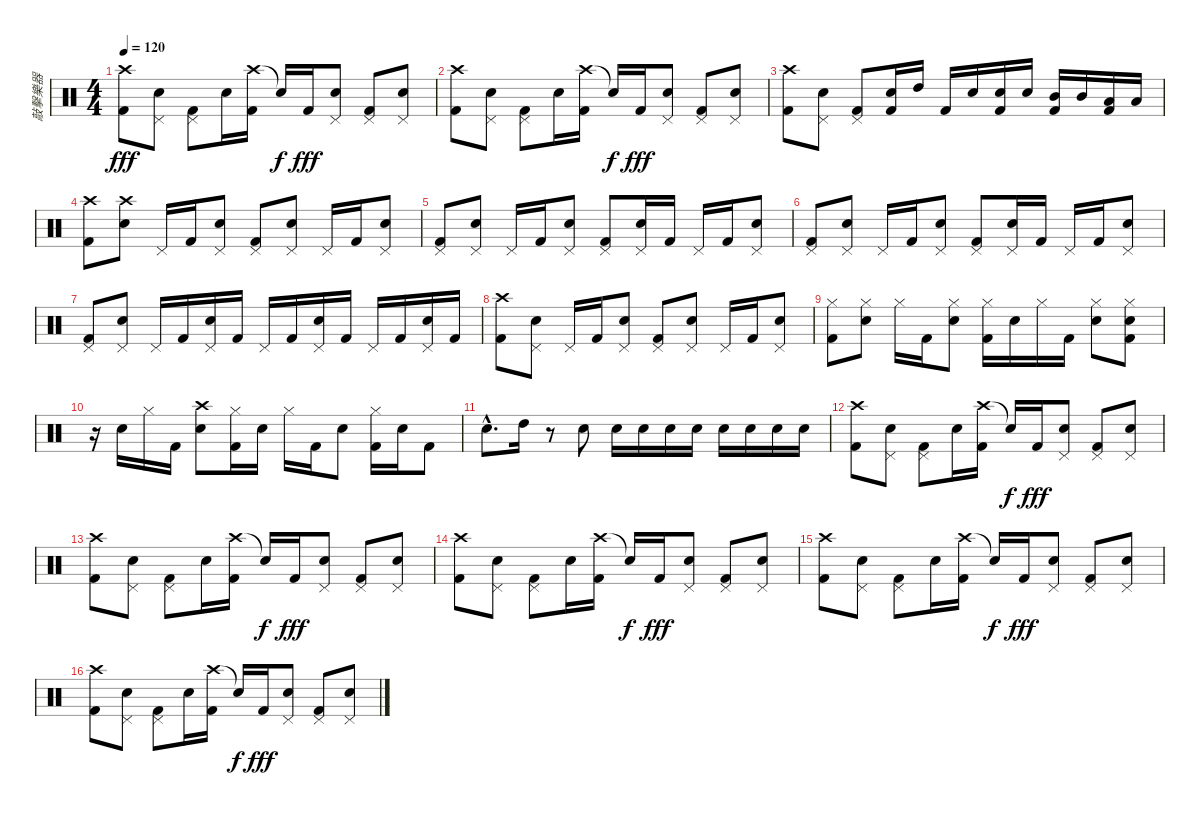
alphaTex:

\track ("敲擊樂器" "敲擊樂器") {instrument percussion}
\staff {score}
\articulation defaults
\ts (4 4)
\tempo 120
\clef neutral
\ks c
("Crash high (hit)" "Kick (hit) 2").8{dy fff} ("Pedal Hi-Hat (hit)" "Snare (hit) 2").8 ("Pedal Hi-Hat (hit)" "Kick (hit) 2").8 "Snare (hit) 2".16 ("Crash high (hit)" "Kick (hit) 2").16 "Snare (hit)"{t}.16{dy f} "Kick (hit) 2".16{dy fff} ("Pedal Hi-Hat (hit)" "Snare (hit) 2").8 ("Pedal Hi-Hat (hit)" "Kick (hit) 2").8 ("Pedal Hi-Hat (hit)" "Snare (hit) 2").8 |
("Crash high (hit)" "Kick (hit) 2").8 ("Pedal Hi-Hat (hit)" "Snare (hit) 2").8 ("Pedal Hi-Hat (hit)" "Kick (hit) 2").8 "Snare (hit) 2".16 ("Crash high (hit)" "Kick (hit) 2").16 "Snare (hit)"{t}.16{dy f} "Kick (hit) 2".16{dy fff} ("Pedal Hi-Hat (hit)" "Snare (hit) 2").8 ("Pedal Hi-Hat (hit)" "Kick (hit) 2").8 ("Pedal Hi-Hat (hit)" "Snare (hit) 2").8 |
("Crash high (hit)" "Kick (hit) 2").8 ("Pedal Hi-Hat (hit)" "Snare (hit) 2").8 ("Pedal Hi-Hat (hit)" "Kick (hit) 2").8 ("Snare (hit) 2" "Kick (hit) 2").16 "High Tom (hit)".16 "Kick (hit) 2".16 "Snare (hit) 2".16 ("Snare (hit) 2" "Kick (hit) 2").16 "Snare (hit) 2".16 ("Mid Tom (hit)" "Kick (hit) 2").16 "Mid Tom (hit)".16 ("Low Tom (hit)" "Kick (hit) 2").16 "Low Tom (hit)".16 |
("Crash high (hit)" "Kick (hit) 2").8 ("Crash high (hit)" "Snare (hit) 2").8 "Pedal Hi-Hat (hit)".16 "Kick (hit) 2".16 ("Pedal Hi-Hat (hit)" "Snare (hit) 2").8 ("Pedal Hi-Hat (hit)" "Kick (hit) 2").8 ("Pedal Hi-Hat (hit)" "Snare (hit) 2").8 "Pedal Hi-Hat (hit)".16 "Kick (hit) 2".16 ("Pedal Hi-Hat (hit)" "Snare (hit) 2").8 |
("Pedal Hi-Hat (hit)" "Kick (hit) 2").8 ("Pedal Hi-Hat (hit)" "Snare (hit) 2").8 "Pedal Hi-Hat (hit)".16 "Kick (hit) 2".16 ("Pedal Hi-Hat (hit)" "Snare (hit) 2").8 ("Pedal Hi-Hat (hit)" "Kick (hit) 2").8 ("Pedal Hi-Hat (hit)" "Snare (hit) 2").16 "Kick (hit) 2".16 "Pedal Hi-Hat (hit)".16 "Kick (hit) 2".16 ("Pedal Hi-Hat (hit)" "Snare (hit) 2").8 |
("Pedal Hi-Hat (hit)" "Kick (hit) 2").8 ("Pedal Hi-Hat (hit)" "Snare (hit) 2").8 "Pedal Hi-Hat (hit)".16 "Kick (hit) 2".16 ("Pedal Hi-Hat (hit)" "Snare (hit) 2").8 ("Pedal Hi-Hat (hit)" "Kick (hit) 2").8 ("Pedal Hi-Hat (hit)" "Snare (hit) 2").16 "Kick (hit) 2".16 "Pedal Hi-Hat (hit)".16 "Kick (hit) 2".16 ("Pedal Hi-Hat (hit)" "Snare (hit) 2").8 |
("Pedal Hi-Hat (hit)" "Kick (hit) 2").8 ("Pedal Hi-Hat (hit)" "Snare (hit) 2").8 "Pedal Hi-Hat (hit)".16 "Kick (hit) 2".16 ("Pedal Hi-Hat (hit)" "Snare (hit) 2").16 "Kick (hit) 2".16 "Pedal Hi-Hat (hit)".16 "Kick (hit) 2".16 ("Pedal Hi-Hat (hit)" "Snare (hit) 2").16 "Kick (hit) 2".16 "Pedal Hi-Hat (hit)".16 "Kick (hit) 2".16 ("Pedal Hi-Hat (hit)" "Snare (hit) 2").16 "Kick (hit) 2".16 |
("Crash high (hit)" "Kick (hit) 2").8 ("Pedal Hi-Hat (hit)" "Snare (hit) 2").8 "Pedal Hi-Hat (hit)".16 "Kick (hit) 2".16 ("Pedal Hi-Hat (hit)" "Snare (hit) 2").8 ("Pedal Hi-Hat (hit)" "Kick (hit) 2").8 ("Pedal Hi-Hat (hit)" "Snare (hit) 2").8 "Pedal Hi-Hat (hit)".16 "Kick (hit) 2".16 ("Pedal Hi-Hat (hit)" "Snare (hit) 2").8 |
("Hi-Hat (closed)" "Kick (hit) 2").8 ("Hi-Hat (closed)" "Snare (hit) 2").8 "Hi-Hat (closed)".16 "Kick (hit) 2".16 ("Hi-Hat (closed)" "Snare (hit) 2").8 ("Hi-Hat (closed)" "Kick (hit) 2").16 "Snare (hit) 2".16 "Hi-Hat (closed)".16 "Kick (hit) 2".16 ("Hi-Hat (closed)" "Snare (hit) 2").8 ("Hi-Hat (closed)" "Snare (hit) 2" "Kick (hit) 2").8 |
r.16 "Snare (hit) 2".16 "Hi-Hat (closed)".16 "Kick (hit) 2".16 ("Crash high (hit)" "Snare (hit) 2").8 ("Hi-Hat (closed)" "Kick (hit) 2").16 "Snare (hit) 2".16 "Hi-Hat (closed)".16 "Kick (hit) 2".16 "Snare (hit) 2".8 ("Hi-Hat (closed)" "Kick (hit) 2").16 "Snare (hit) 2".16 "Kick (hit) 2".8 |
"Snare (hit) 2"{hac}.8{d} "High Tom (hit)".16 r.8 "Snare (hit) 2".8 "Snare (hit) 2".16 "Snare (hit) 2".16 "Snare (hit) 2".16 "Snare (hit) 2".16 "Snare (hit) 2".16 "Snare (hit) 2".16 "Snare (hit) 2".16 "Snare (hit) 2".16 |
("Crash high (hit)" "Kick (hit) 2").8 ("Pedal Hi-Hat (hit)" "Snare (hit) 2").8 ("Pedal Hi-Hat (hit)" "Kick (hit) 2").8 "Snare (hit) 2".16 ("Crash high (hit)" "Kick (hit) 2").16 "Snare (hit)"{t}.16{dy f} "Kick (hit) 2".16{dy fff} ("Pedal Hi-Hat (hit)" "Snare (hit) 2").8 ("Pedal Hi-Hat (hit)" "Kick (hit) 2").8 ("Pedal Hi-Hat (hit)" "Snare (hit) 2").8 |
("Crash high (hit)" "Kick (hit) 2").8 ("Pedal Hi-Hat (hit)" "Snare (hit) 2").8 ("Pedal Hi-Hat (hit)" "Kick (hit) 2").8 "Snare (hit) 2".16 ("Crash high (hit)" "Kick (hit) 2").16 "Snare (hit)"{t}.16{dy f} "Kick (hit) 2".16{dy fff} ("Pedal Hi-Hat (hit)" "Snare (hit) 2").8 ("Pedal Hi-Hat (hit)" "Kick (hit) 2").8 ("Pedal Hi-Hat (hit)" "Snare (hit) 2").8 |
("Crash high (hit)" "Kick (hit) 2").8 ("Pedal Hi-Hat (hit)" "Snare (hit) 2").8 ("Pedal Hi-Hat (hit)" "Kick (hit) 2").8 "Snare (hit) 2".16 ("Crash high (hit)" "Kick (hit) 2").16 "Snare (hit)"{t}.16{dy f} "Kick (hit) 2".16{dy fff} ("Pedal Hi-Hat (hit)" "Snare (hit) 2").8 ("Pedal Hi-Hat (hit)" "Kick (hit) 2").8 ("Pedal Hi-Hat (hit)" "Snare (hit) 2").8 |
("Crash high (hit)" "Kick (hit) 2").8 ("Pedal Hi-Hat (hit)" "Snare (hit) 2").8 ("Pedal Hi-Hat (hit)" "Kick (hit) 2").8 "Snare (hit) 2".16 ("Crash high (hit)" "Kick (hit) 2").16 "Snare (hit)"{t}.16{dy f} "Kick (hit) 2".16{dy fff} ("Pedal Hi-Hat (hit)" "Snare (hit) 2").8 ("Pedal Hi-Hat (hit)" "Kick (hit) 2").8 ("Pedal Hi-Hat (hit)" "Snare (hit) 2").8 |
("Crash high (hit)" "Kick (hit) 2").8 ("Pedal Hi-Hat (hit)" "Snare (hit) 2").8 ("Pedal Hi-Hat (hit)" "Kick (hit) 2").8 "Snare (hit) 2".16 ("Crash high (hit)" "Kick (hit) 2").16 "Snare (hit)"{t}.16{dy f} "Kick (hit) 2".16{dy fff} ("Pedal Hi-Hat (hit)" "Snare (hit) 2").8 ("Pedal Hi-Hat (hit)" "Kick (hit) 2").8 ("Pedal Hi-Hat (hit)" "Snare (hit) 2").8
